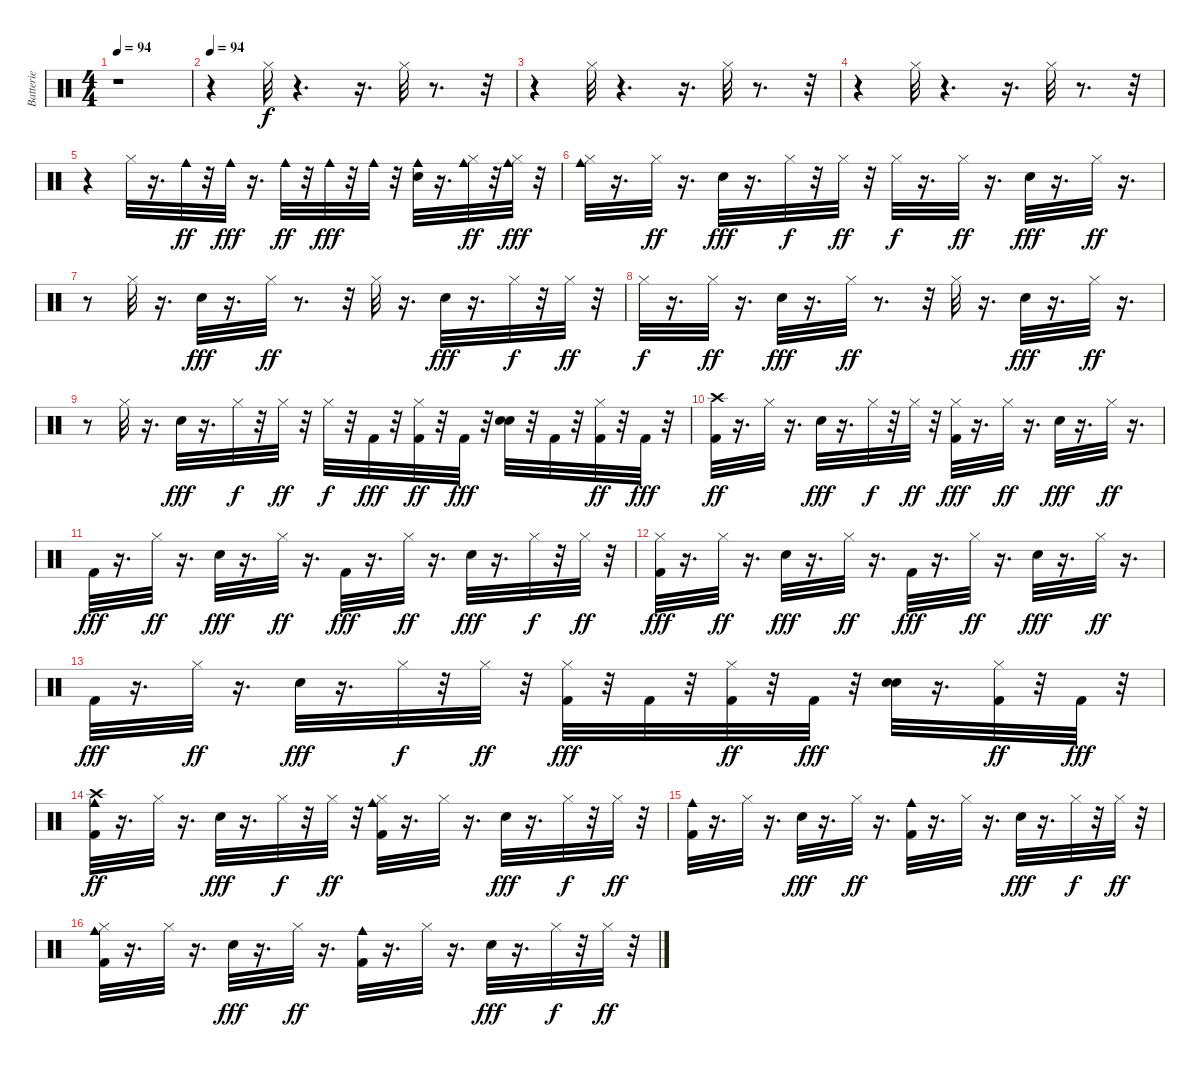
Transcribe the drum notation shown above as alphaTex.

\track ("Batterie" "Batterie") {instrument percussion}
\staff {score}
\articulation defaults
\ts (4 4)
\tempo 94
\clef neutral
\ks c
r.1{dy f} |
\tempo 94
r.4 "Hi-Hat (closed)".32 r.4{d} r.16{d} "Hi-Hat (closed)".32 r.8{d} r.32 |
r.4 "Hi-Hat (closed)".32 r.4{d} r.16{d} "Hi-Hat (closed)".32 r.8{d} r.32 |
r.4 "Hi-Hat (closed)".32 r.4{d} r.16{d} "Hi-Hat (closed)".32 r.8{d} r.32 |
r.4 "Hi-Hat (closed)".32 r.16{d} "Cowbell medium (hit)".32{dy ff} r.32 "Cowbell medium (hit)".32{dy fff} r.16{d} "Cowbell medium (hit)".32{dy ff} r.32 "Cowbell medium (hit)".32{dy fff} r.32 "Cowbell medium (hit)".32 r.32 ("Hand Clap (hit)" "Cowbell medium (hit)").32 r.16{d} ("Hi-Hat (closed)" "Cowbell medium (hit)").32{dy ff} r.32 ("Hi-Hat (closed)" "Cowbell medium (hit)").32{dy fff} r.32 |
("Hi-Hat (closed)" "Cowbell medium (hit)").32 r.16{d} "Hi-Hat (closed)".32{dy ff} r.16{d} "Hand Clap (hit)".32{dy fff} r.16{d} "Hi-Hat (closed)".32{dy f} r.32 "Hi-Hat (closed)".32{dy ff} r.32 "Hi-Hat (closed)".32{dy f} r.16{d} "Hi-Hat (closed)".32{dy ff} r.16{d} "Hand Clap (hit)".32{dy fff} r.16{d} "Hi-Hat (closed)".32{dy ff} r.16{d} |
r.8 "Hi-Hat (closed)".32 r.16{d} "Hand Clap (hit)".32{dy fff} r.16{d} "Hi-Hat (closed)".32{dy ff} r.8{d} r.32 "Hi-Hat (closed)".32 r.16{d} "Hand Clap (hit)".32{dy fff} r.16{d} "Hi-Hat (closed)".32{dy f} r.32 "Hi-Hat (closed)".32{dy ff} r.32 |
"Hi-Hat (closed)".32{dy f} r.16{d} "Hi-Hat (closed)".32{dy ff} r.16{d} "Hand Clap (hit)".32{dy fff} r.16{d} "Hi-Hat (closed)".32{dy ff} r.8{d} r.32 "Hi-Hat (closed)".32 r.16{d} "Hand Clap (hit)".32{dy fff} r.16{d} "Hi-Hat (closed)".32{dy ff} r.16{d} |
r.8 "Hi-Hat (closed)".32 r.16{d} "Hand Clap (hit)".32{dy fff} r.16{d} "Hi-Hat (closed)".32{dy f} r.32 "Hi-Hat (closed)".32{dy ff} r.32 "Hi-Hat (closed)".32{dy f} r.32 "Kick (hit) 2".32{dy fff} r.32 ("Kick (hit) 2" "Hi-Hat (closed)").32{dy ff} r.32 "Kick (hit) 2".32{dy fff} r.32 ("Electric Snare (hit)" "Hand Clap (hit)").32 r.32 "Kick (hit) 2".32 r.32 ("Kick (hit) 2" "Hi-Hat (closed)").32{dy ff} r.32 "Kick (hit) 2".32{dy fff} r.32 |
("Kick (hit) 2" "Crash high (hit)").32{dy ff} r.16{d} "Hi-Hat (closed)".32 r.16{d} "Hand Clap (hit)".32{dy fff} r.16{d} "Hi-Hat (closed)".32{dy f} r.32 "Hi-Hat (closed)".32{dy ff} r.32 ("Kick (hit) 2" "Hi-Hat (closed)").32{dy fff} r.16{d} "Hi-Hat (closed)".32{dy ff} r.16{d} "Hand Clap (hit)".32{dy fff} r.16{d} "Hi-Hat (closed)".32{dy ff} r.16{d} |
"Kick (hit) 2".32{dy fff} r.16{d} "Hi-Hat (closed)".32{dy ff} r.16{d} "Hand Clap (hit)".32{dy fff} r.16{d} "Hi-Hat (closed)".32{dy ff} r.16{d} "Kick (hit) 2".32{dy fff} r.16{d} "Hi-Hat (closed)".32{dy ff} r.16{d} "Hand Clap (hit)".32{dy fff} r.16{d} "Hi-Hat (closed)".32{dy f} r.32 "Hi-Hat (closed)".32{dy ff} r.32 |
("Kick (hit) 2" "Hi-Hat (closed)").32{dy fff} r.16{d} "Hi-Hat (closed)".32{dy ff} r.16{d} "Hand Clap (hit)".32{dy fff} r.16{d} "Hi-Hat (closed)".32{dy ff} r.16{d} "Kick (hit) 2".32{dy fff} r.16{d} "Hi-Hat (closed)".32{dy ff} r.16{d} "Hand Clap (hit)".32{dy fff} r.16{d} "Hi-Hat (closed)".32{dy ff} r.16{d} |
"Kick (hit) 2".32{dy fff} r.16{d} "Hi-Hat (closed)".32{dy ff} r.16{d} "Hand Clap (hit)".32{dy fff} r.16{d} "Hi-Hat (closed)".32{dy f} r.32 "Hi-Hat (closed)".32{dy ff} r.32 ("Kick (hit) 2" "Hi-Hat (closed)").32{dy fff} r.32 "Kick (hit) 2".32 r.32 ("Kick (hit) 2" "Hi-Hat (closed)").32{dy ff} r.32 "Kick (hit) 2".32{dy fff} r.32 ("Electric Snare (hit)" "Hand Clap (hit)").32 r.16{d} ("Kick (hit) 2" "Hi-Hat (closed)").32{dy ff} r.32 "Kick (hit) 2".32{dy fff} r.32 |
("Kick (hit) 2" "Crash high (hit)" "Cowbell medium (hit)").32{dy ff} r.16{d} "Hi-Hat (closed)".32 r.16{d} "Hand Clap (hit)".32{dy fff} r.16{d} "Hi-Hat (closed)".32{dy f} r.32 "Hi-Hat (closed)".32{dy ff} r.32 ("Kick (hit) 2" "Hi-Hat (closed)" "Cowbell medium (hit)").32 r.16{d} "Hi-Hat (closed)".32 r.16{d} "Hand Clap (hit)".32{dy fff} r.16{d} "Hi-Hat (closed)".32{dy f} r.32 "Hi-Hat (closed)".32{dy ff} r.32 |
("Kick (hit) 2" "Cowbell medium (hit)").32 r.16{d} "Hi-Hat (closed)".32 r.16{d} "Hand Clap (hit)".32{dy fff} r.16{d} "Hi-Hat (closed)".32{dy ff} r.16{d} ("Kick (hit) 2" "Cowbell medium (hit)").32 r.16{d} "Hi-Hat (closed)".32 r.16{d} "Hand Clap (hit)".32{dy fff} r.16{d} "Hi-Hat (closed)".32{dy f} r.32 "Hi-Hat (closed)".32{dy ff} r.32 |
("Kick (hit) 2" "Hi-Hat (closed)" "Cowbell medium (hit)").32 r.16{d} "Hi-Hat (closed)".32 r.16{d} "Hand Clap (hit)".32{dy fff} r.16{d} "Hi-Hat (closed)".32{dy ff} r.16{d} ("Kick (hit) 2" "Cowbell medium (hit)").32 r.16{d} "Hi-Hat (closed)".32 r.16{d} "Hand Clap (hit)".32{dy fff} r.16{d} "Hi-Hat (closed)".32{dy f} r.32 "Hi-Hat (closed)".32{dy ff} r.32
